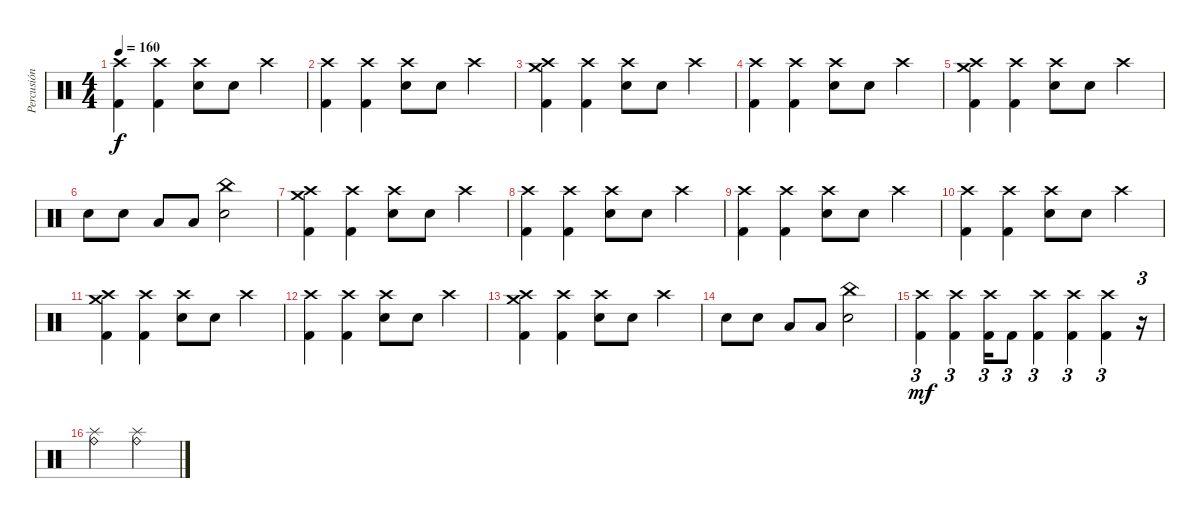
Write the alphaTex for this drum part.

\track ("Percusión" "Percusión") {instrument percussion}
\staff {score}
\articulation defaults
\ts (4 4)
\tempo 160
\clef neutral
\ks c
("Crash high (hit)" "Kick (hit) 2").4{dy f} ("Crash high (hit)" "Kick (hit) 2").4 ("Electric Snare (hit)" "Crash high (hit)").8 "Electric Snare (hit)".8 "Crash high (hit)".4 |
("Crash high (hit)" "Kick (hit) 2").4 ("Crash high (hit)" "Kick (hit) 2").4 ("Electric Snare (hit)" "Crash high (hit)").8 "Electric Snare (hit)".8 "Crash high (hit)".4 |
("Crash medium (hit)" "Crash high (hit)" "Kick (hit) 2").4 ("Crash high (hit)" "Kick (hit) 2").4 ("Electric Snare (hit)" "Crash high (hit)").8 "Electric Snare (hit)".8 "Crash high (hit)".4 |
("Crash high (hit)" "Kick (hit) 2").4 ("Crash high (hit)" "Kick (hit) 2").4 ("Electric Snare (hit)" "Crash high (hit)").8 "Electric Snare (hit)".8 "Crash high (hit)".4 |
("Crash medium (hit)" "Crash high (hit)" "Kick (hit) 2").4 ("Crash high (hit)" "Kick (hit) 2").4 ("Electric Snare (hit)" "Crash high (hit)").8 "Electric Snare (hit)".8 "Crash high (hit)".4 |
"Electric Snare (hit)".8 "Electric Snare (hit)".8 "Low Tom (hit)".8 "Low Tom (hit)".8 ("Electric Snare (hit)" "China (hit)").2 |
("Crash medium (hit)" "Crash high (hit)" "Kick (hit) 2").4 ("Crash high (hit)" "Kick (hit) 2").4 ("Electric Snare (hit)" "Crash high (hit)").8 "Electric Snare (hit)".8 "Crash high (hit)".4 |
("Crash high (hit)" "Kick (hit) 2").4 ("Crash high (hit)" "Kick (hit) 2").4 ("Electric Snare (hit)" "Crash high (hit)").8 "Electric Snare (hit)".8 "Crash high (hit)".4 |
("Crash high (hit)" "Kick (hit) 2").4 ("Crash high (hit)" "Kick (hit) 2").4 ("Electric Snare (hit)" "Crash high (hit)").8 "Electric Snare (hit)".8 "Crash high (hit)".4 |
("Crash high (hit)" "Kick (hit) 2").4 ("Crash high (hit)" "Kick (hit) 2").4 ("Electric Snare (hit)" "Crash high (hit)").8 "Electric Snare (hit)".8 "Crash high (hit)".4 |
("Crash medium (hit)" "Crash high (hit)" "Kick (hit) 2").4 ("Crash high (hit)" "Kick (hit) 2").4 ("Electric Snare (hit)" "Crash high (hit)").8 "Electric Snare (hit)".8 "Crash high (hit)".4 |
("Crash high (hit)" "Kick (hit) 2").4 ("Crash high (hit)" "Kick (hit) 2").4 ("Electric Snare (hit)" "Crash high (hit)").8 "Electric Snare (hit)".8 "Crash high (hit)".4 |
("Crash medium (hit)" "Crash high (hit)" "Kick (hit) 2").4 ("Crash high (hit)" "Kick (hit) 2").4 ("Electric Snare (hit)" "Crash high (hit)").8 "Electric Snare (hit)".8 "Crash high (hit)".4 |
"Electric Snare (hit)".8 "Electric Snare (hit)".8 "Low Tom (hit)".8 "Low Tom (hit)".8 ("Electric Snare (hit)" "China (hit)").2 |
("Crash high (hit)" "Kick (hit) 2").4{tu (3 2) dy mf} ("Crash high (hit)" "Kick (hit) 2").4{tu (3 2)} ("Crash high (hit)" "Kick (hit) 2").16{tu (3 2)} "Kick (hit) 2".8{tu (3 2)} ("Crash high (hit)" "Kick (hit) 2").4{tu (3 2)} ("Crash high (hit)" "Kick (hit) 2").4{tu (3 2)} ("Crash high (hit)" "Kick (hit) 2").4{tu (3 2)} r.16{tu (3 2)} |
("Splash (hit)" "Ride (bell)").2 ("Splash (hit)" "Ride (bell)").2
